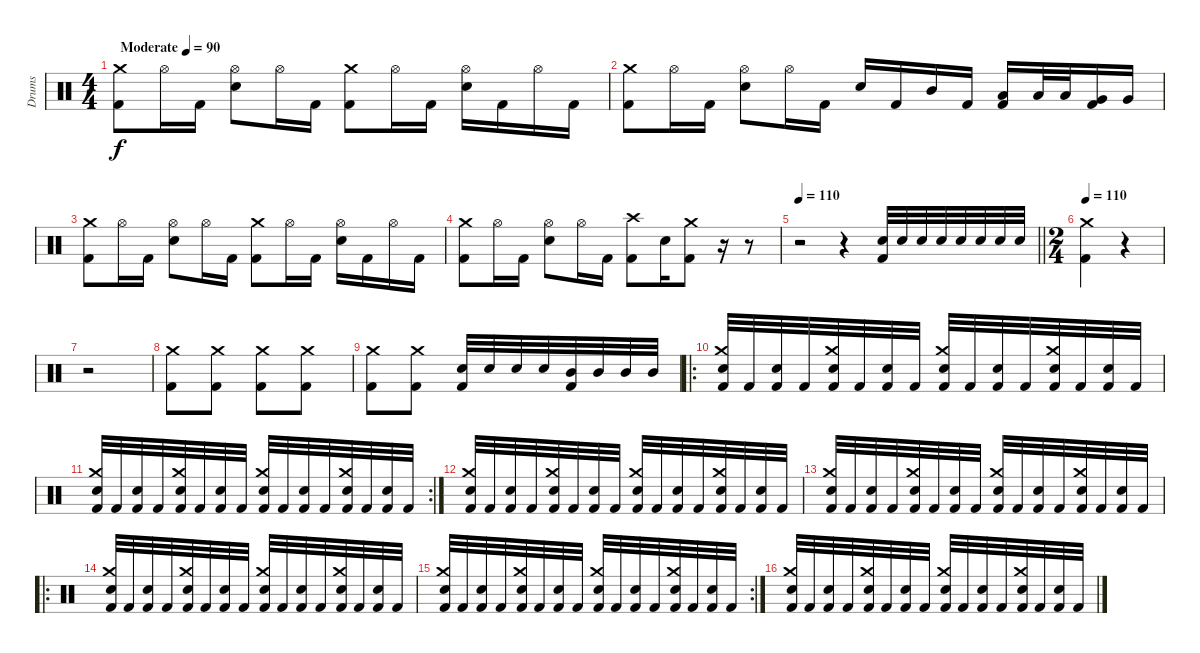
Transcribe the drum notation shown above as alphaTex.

\track ("Drums" "Drums") {instrument percussion}
\staff {score}
\articulation defaults
\ts (4 4)
\tempo (90 "Moderate")
\clef neutral
\ks c
("Kick (hit) 2" "Crash medium (hit)").8{dy f} "Hi-Hat (open)".16 "Kick (hit) 2".16 ("Electric Snare (hit)" "Hi-Hat (open)").8 "Hi-Hat (open)".16 "Kick (hit) 2".16 ("Kick (hit) 2" "Crash medium (hit)").8 "Hi-Hat (open)".16 "Kick (hit) 2".16 ("Electric Snare (hit)" "Hi-Hat (open)").16 "Kick (hit) 2".16 "Hi-Hat (open)".16 "Kick (hit) 2".16 |
("Kick (hit) 2" "Crash medium (hit)").8 "Hi-Hat (open)".16 "Kick (hit) 2".16 ("Electric Snare (hit)" "Hi-Hat (open)").8 "Hi-Hat (open)".16 "Kick (hit) 2".16 "Electric Snare (hit)".16 "Kick (hit) 2".16 "Mid Tom (hit)".16 "Kick (hit) 2".16 ("Low Tom (hit)" "Kick (hit) 2").16 "Low Tom (hit)".32 "Low Tom (hit)".32 ("Very Low Tom (hit)" "Kick (hit) 2").16 "Very Low Tom (hit)".16 |
("Kick (hit) 2" "Crash medium (hit)").8 "Hi-Hat (open)".16 "Kick (hit) 2".16 ("Electric Snare (hit)" "Hi-Hat (open)").8 "Hi-Hat (open)".16 "Kick (hit) 2".16 ("Kick (hit) 2" "Crash medium (hit)").8 "Hi-Hat (open)".16 "Kick (hit) 2".16 ("Electric Snare (hit)" "Hi-Hat (open)").16 "Kick (hit) 2".16 "Hi-Hat (open)".16 "Kick (hit) 2".16 |
("Kick (hit) 2" "Crash medium (hit)").8 "Hi-Hat (open)".16 "Kick (hit) 2".16 ("Electric Snare (hit)" "Hi-Hat (open)").8 "Hi-Hat (open)".16 "Kick (hit) 2".16 ("Kick (hit) 2" "Crash high (hit)").8 "Electric Snare (hit)".16 ("Kick (hit) 2" "Crash medium (hit)").8 r.16 r.8 |
\tempo 110
\barLineRight lightlight
r.2 r.4 ("Electric Snare (hit)" "Kick (hit) 2").32 "Electric Snare (hit)".32 "Electric Snare (hit)".32 "Electric Snare (hit)".32 "Electric Snare (hit)".32 "Electric Snare (hit)".32 "Electric Snare (hit)".32 "Electric Snare (hit)".32 |
\ts (2 4)
\tempo 110
("Kick (hit) 2" "Crash medium (hit)").4 r.4 |
r.2 |
("Kick (hit) 2" "Crash medium (hit)").8 ("Kick (hit) 2" "Crash medium (hit)").8 ("Kick (hit) 2" "Crash medium (hit)").8 ("Kick (hit) 2" "Crash medium (hit)").8 |
("Kick (hit) 2" "Crash medium (hit)").8 ("Kick (hit) 2" "Crash medium (hit)").8 ("Electric Snare (hit)" "Kick (hit) 2").32 "Electric Snare (hit)".32 "Electric Snare (hit)".32 "Electric Snare (hit)".32 ("Mid Tom (hit)" "Kick (hit) 2").32 "Mid Tom (hit)".32 "Mid Tom (hit)".32 "Mid Tom (hit)".32 |
\ro
("Kick (hit) 2" "Crash medium (hit)" "Electric Snare (hit)").32 "Kick (hit) 2".32 ("Kick (hit) 2" "Electric Snare (hit)").32 "Kick (hit) 2".32 ("Kick (hit) 2" "Crash medium (hit)" "Electric Snare (hit)").32 "Kick (hit) 2".32 ("Kick (hit) 2" "Electric Snare (hit)").32 "Kick (hit) 2".32 ("Kick (hit) 2" "Crash medium (hit)" "Electric Snare (hit)").32 "Kick (hit) 2".32 ("Kick (hit) 2" "Electric Snare (hit)").32 "Kick (hit) 2".32 ("Kick (hit) 2" "Crash medium (hit)" "Electric Snare (hit)").32 "Kick (hit) 2".32 ("Kick (hit) 2" "Electric Snare (hit)").32 "Kick (hit) 2".32 |
\rc 2
("Kick (hit) 2" "Crash medium (hit)" "Electric Snare (hit)").32 "Kick (hit) 2".32 ("Kick (hit) 2" "Electric Snare (hit)").32 "Kick (hit) 2".32 ("Kick (hit) 2" "Crash medium (hit)" "Electric Snare (hit)").32 "Kick (hit) 2".32 ("Kick (hit) 2" "Electric Snare (hit)").32 "Kick (hit) 2".32 ("Kick (hit) 2" "Crash medium (hit)" "Electric Snare (hit)").32 "Kick (hit) 2".32 ("Kick (hit) 2" "Electric Snare (hit)").32 "Kick (hit) 2".32 ("Kick (hit) 2" "Crash medium (hit)" "Electric Snare (hit)").32 "Kick (hit) 2".32 ("Kick (hit) 2" "Electric Snare (hit)").32 "Kick (hit) 2".32 |
("Kick (hit) 2" "Crash medium (hit)" "Electric Snare (hit)").32 "Kick (hit) 2".32 ("Kick (hit) 2" "Electric Snare (hit)").32 "Kick (hit) 2".32 ("Kick (hit) 2" "Crash medium (hit)" "Electric Snare (hit)").32 "Kick (hit) 2".32 ("Kick (hit) 2" "Electric Snare (hit)").32 "Kick (hit) 2".32 ("Kick (hit) 2" "Crash medium (hit)" "Electric Snare (hit)").32 "Kick (hit) 2".32 ("Kick (hit) 2" "Electric Snare (hit)").32 "Kick (hit) 2".32 ("Kick (hit) 2" "Crash medium (hit)" "Electric Snare (hit)").32 "Kick (hit) 2".32 ("Kick (hit) 2" "Electric Snare (hit)").32 "Kick (hit) 2".32 |
("Kick (hit) 2" "Crash medium (hit)" "Electric Snare (hit)").32 "Kick (hit) 2".32 ("Kick (hit) 2" "Electric Snare (hit)").32 "Kick (hit) 2".32 ("Kick (hit) 2" "Crash medium (hit)" "Electric Snare (hit)").32 "Kick (hit) 2".32 ("Kick (hit) 2" "Electric Snare (hit)").32 "Kick (hit) 2".32 ("Kick (hit) 2" "Crash medium (hit)" "Electric Snare (hit)").32 "Kick (hit) 2".32 ("Kick (hit) 2" "Electric Snare (hit)").32 "Kick (hit) 2".32 ("Kick (hit) 2" "Crash medium (hit)" "Electric Snare (hit)").32 "Kick (hit) 2".32 ("Kick (hit) 2" "Electric Snare (hit)").32 "Kick (hit) 2".32 |
\ro
("Kick (hit) 2" "Crash medium (hit)" "Electric Snare (hit)").32 "Kick (hit) 2".32 ("Kick (hit) 2" "Electric Snare (hit)").32 "Kick (hit) 2".32 ("Kick (hit) 2" "Crash medium (hit)" "Electric Snare (hit)").32 "Kick (hit) 2".32 ("Kick (hit) 2" "Electric Snare (hit)").32 "Kick (hit) 2".32 ("Kick (hit) 2" "Crash medium (hit)" "Electric Snare (hit)").32 "Kick (hit) 2".32 ("Kick (hit) 2" "Electric Snare (hit)").32 "Kick (hit) 2".32 ("Kick (hit) 2" "Crash medium (hit)" "Electric Snare (hit)").32 "Kick (hit) 2".32 ("Kick (hit) 2" "Electric Snare (hit)").32 "Kick (hit) 2".32 |
\rc 2
("Kick (hit) 2" "Crash medium (hit)" "Electric Snare (hit)").32 "Kick (hit) 2".32 ("Kick (hit) 2" "Electric Snare (hit)").32 "Kick (hit) 2".32 ("Kick (hit) 2" "Crash medium (hit)" "Electric Snare (hit)").32 "Kick (hit) 2".32 ("Kick (hit) 2" "Electric Snare (hit)").32 "Kick (hit) 2".32 ("Kick (hit) 2" "Crash medium (hit)" "Electric Snare (hit)").32 "Kick (hit) 2".32 ("Kick (hit) 2" "Electric Snare (hit)").32 "Kick (hit) 2".32 ("Kick (hit) 2" "Crash medium (hit)" "Electric Snare (hit)").32 "Kick (hit) 2".32 ("Kick (hit) 2" "Electric Snare (hit)").32 "Kick (hit) 2".32 |
("Kick (hit) 2" "Crash medium (hit)" "Electric Snare (hit)").32 "Kick (hit) 2".32 ("Kick (hit) 2" "Electric Snare (hit)").32 "Kick (hit) 2".32 ("Kick (hit) 2" "Crash medium (hit)" "Electric Snare (hit)").32 "Kick (hit) 2".32 ("Kick (hit) 2" "Electric Snare (hit)").32 "Kick (hit) 2".32 ("Kick (hit) 2" "Crash medium (hit)" "Electric Snare (hit)").32 "Kick (hit) 2".32 ("Kick (hit) 2" "Electric Snare (hit)").32 "Kick (hit) 2".32 ("Kick (hit) 2" "Crash medium (hit)" "Electric Snare (hit)").32 "Kick (hit) 2".32 ("Kick (hit) 2" "Electric Snare (hit)").32 "Kick (hit) 2".32
